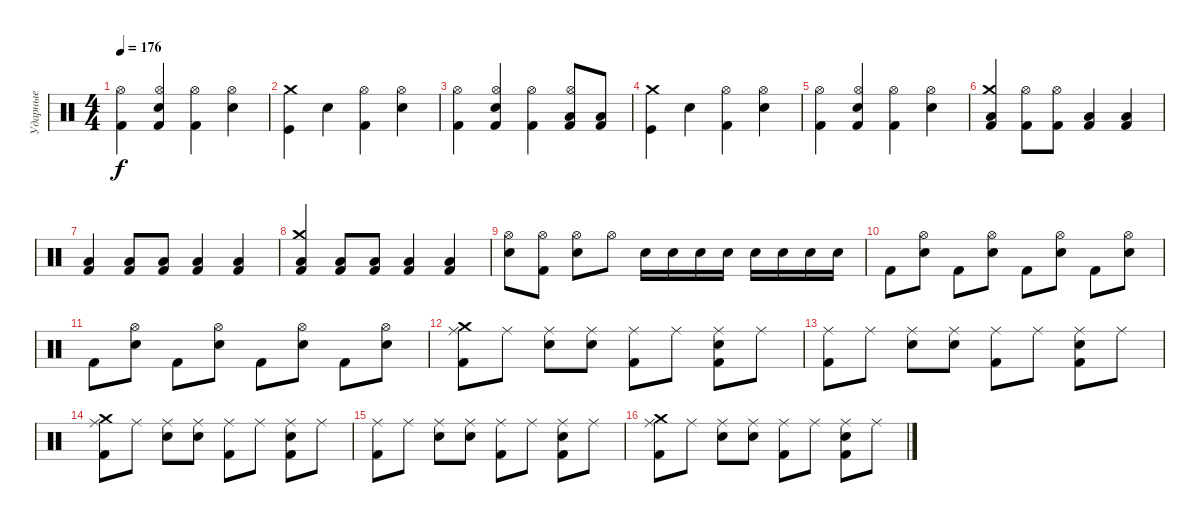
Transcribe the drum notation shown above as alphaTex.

\track ("Ударные" "Ударные") {instrument percussion}
\staff {score}
\articulation defaults
\ts (4 4)
\tempo 176
\clef neutral
\ks c
("Kick (hit) 2" "Hi-Hat (open)").4{dy f} ("Kick (hit) 2" "Electric Snare (hit)" "Hi-Hat (open)").4 ("Kick (hit) 2" "Hi-Hat (open)").4 ("Electric Snare (hit)" "Hi-Hat (open)").4 |
("Kick (hit)" "Crash medium (hit)").4 "Electric Snare (hit)".4 ("Kick (hit) 2" "Hi-Hat (open)").4 ("Electric Snare (hit)" "Hi-Hat (open)").4 |
("Kick (hit) 2" "Hi-Hat (open)").4 ("Kick (hit) 2" "Electric Snare (hit)" "Hi-Hat (open)").4 ("Kick (hit) 2" "Hi-Hat (open)").4 ("Kick (hit) 2" "Low Tom (hit)" "Hi-Hat (open)").8 ("Kick (hit) 2" "Low Tom (hit)").8 |
("Kick (hit)" "Crash medium (hit)").4 "Electric Snare (hit)".4 ("Kick (hit) 2" "Hi-Hat (open)").4 ("Electric Snare (hit)" "Hi-Hat (open)").4 |
("Kick (hit) 2" "Hi-Hat (open)").4 ("Kick (hit) 2" "Electric Snare (hit)" "Hi-Hat (open)").4 ("Kick (hit) 2" "Hi-Hat (open)").4 ("Electric Snare (hit)" "Hi-Hat (open)").4 |
("Kick (hit) 2" "Low Tom (hit)" "Crash medium (hit)").4 ("Kick (hit) 2" "Hi-Hat (open)").8 ("Kick (hit) 2" "Hi-Hat (open)").8 ("Kick (hit) 2" "Low Tom (hit)").4 ("Kick (hit) 2" "Low Tom (hit)").4 |
("Kick (hit) 2" "Low Tom (hit)").4 ("Kick (hit) 2" "Low Tom (hit)").8 ("Kick (hit) 2" "Low Tom (hit)").8 ("Kick (hit) 2" "Low Tom (hit)").4 ("Kick (hit) 2" "Low Tom (hit)").4 |
("Kick (hit) 2" "Low Tom (hit)" "Crash medium (hit)").4 ("Kick (hit) 2" "Low Tom (hit)").8 ("Kick (hit) 2" "Low Tom (hit)").8 ("Kick (hit) 2" "Low Tom (hit)").4 ("Kick (hit) 2" "Low Tom (hit)").4 |
("Electric Snare (hit)" "Hi-Hat (open)").8 ("Kick (hit) 2" "Hi-Hat (open)").8 ("Electric Snare (hit)" "Hi-Hat (open)").8 "Hi-Hat (open)".8 "Electric Snare (hit)".16 "Electric Snare (hit)".16 "Electric Snare (hit)".16 "Electric Snare (hit)".16 "Electric Snare (hit)".16 "Electric Snare (hit)".16 "Electric Snare (hit)".16 "Electric Snare (hit)".16 |
"Kick (hit) 2".8 ("Electric Snare (hit)" "Hi-Hat (open)").8 "Kick (hit) 2".8 ("Electric Snare (hit)" "Hi-Hat (open)").8 "Kick (hit) 2".8 ("Electric Snare (hit)" "Hi-Hat (open)").8 "Kick (hit) 2".8 ("Electric Snare (hit)" "Hi-Hat (open)").8 |
"Kick (hit) 2".8 ("Electric Snare (hit)" "Hi-Hat (open)").8 "Kick (hit) 2".8 ("Electric Snare (hit)" "Hi-Hat (open)").8 "Kick (hit) 2".8 ("Electric Snare (hit)" "Hi-Hat (open)").8 "Kick (hit) 2".8 ("Electric Snare (hit)" "Hi-Hat (open)").8 |
("Kick (hit) 2" "Ride (middle)" "Crash medium (hit)").8 "Ride (middle)".8 ("Ride (middle)" "Electric Snare (hit)").8 ("Ride (middle)" "Electric Snare (hit)").8 ("Kick (hit) 2" "Ride (middle)").8 "Ride (middle)".8 ("Kick (hit) 2" "Ride (middle)" "Electric Snare (hit)").8 "Ride (middle)".8 |
("Kick (hit) 2" "Ride (middle)").8 "Ride (middle)".8 ("Ride (middle)" "Electric Snare (hit)").8 ("Ride (middle)" "Electric Snare (hit)").8 ("Kick (hit) 2" "Ride (middle)").8 "Ride (middle)".8 ("Kick (hit) 2" "Ride (middle)" "Electric Snare (hit)").8 "Ride (middle)".8 |
("Kick (hit) 2" "Ride (middle)" "Crash medium (hit)").8 "Ride (middle)".8 ("Ride (middle)" "Electric Snare (hit)").8 ("Ride (middle)" "Electric Snare (hit)").8 ("Kick (hit) 2" "Ride (middle)").8 "Ride (middle)".8 ("Kick (hit) 2" "Ride (middle)" "Electric Snare (hit)").8 "Ride (middle)".8 |
("Kick (hit) 2" "Ride (middle)").8 "Ride (middle)".8 ("Ride (middle)" "Electric Snare (hit)").8 ("Ride (middle)" "Electric Snare (hit)").8 ("Kick (hit) 2" "Ride (middle)").8 "Ride (middle)".8 ("Kick (hit) 2" "Ride (middle)" "Electric Snare (hit)").8 "Ride (middle)".8 |
("Kick (hit) 2" "Ride (middle)" "Crash medium (hit)").8 "Ride (middle)".8 ("Ride (middle)" "Electric Snare (hit)").8 ("Ride (middle)" "Electric Snare (hit)").8 ("Kick (hit) 2" "Ride (middle)").8 "Ride (middle)".8 ("Kick (hit) 2" "Ride (middle)" "Electric Snare (hit)").8 "Ride (middle)".8
